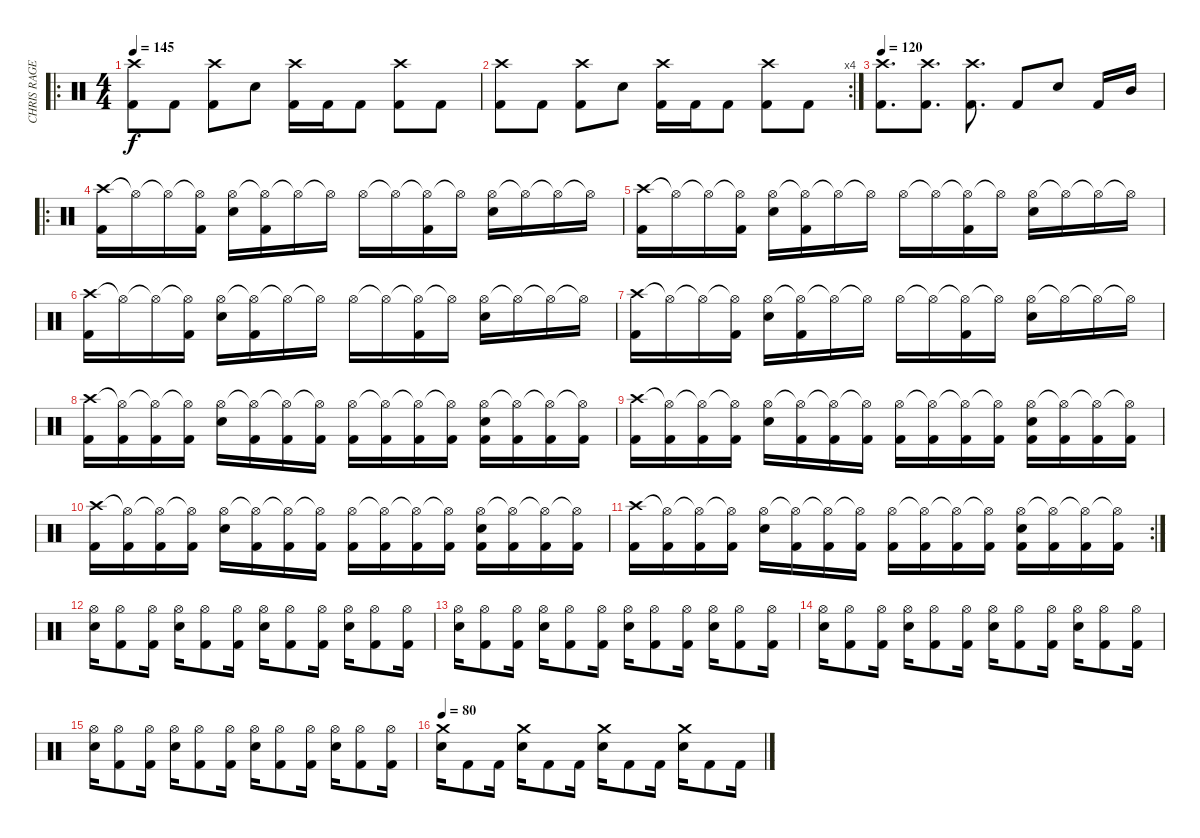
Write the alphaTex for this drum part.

\track ("CHRIS RAGE" "CHRIS RAGE") {instrument percussion}
\staff {score}
\articulation defaults
\ro
\ts (4 4)
\tempo 145
\clef neutral
\ks c
("Crash high (hit)" "Kick (hit) 2").8{dy f} "Kick (hit) 2".8 ("Crash high (hit)" "Kick (hit) 2").8 "Electric Snare (hit)".8 ("Crash high (hit)" "Kick (hit) 2").16 "Kick (hit) 2".16 "Kick (hit) 2".8 ("Crash high (hit)" "Kick (hit) 2").8 "Kick (hit) 2".8 |
\rc 4
("Crash high (hit)" "Kick (hit) 2").8 "Kick (hit) 2".8 ("Crash high (hit)" "Kick (hit) 2").8 "Electric Snare (hit)".8 ("Crash high (hit)" "Kick (hit) 2").16 "Kick (hit) 2".16 "Kick (hit) 2".8 ("Crash high (hit)" "Kick (hit) 2").8 "Kick (hit) 2".8 |
\tempo 120
("Crash high (hit)" "Kick (hit) 2").8{d} ("Crash high (hit)" "Kick (hit) 2").8{d} ("Crash high (hit)" "Kick (hit) 2").8{d} "Kick (hit) 2".8 "Electric Snare (hit)".8 "Kick (hit) 2".16 "Mid Tom (hit)".16 |
\ro
("Crash high (hit)" "Kick (hit) 2").16 "Hi-Hat (open)"{t}.16 "Hi-Hat (open)"{t}.16 ("Hi-Hat (open)"{t} "Kick (hit) 2").16 ("Hi-Hat (open)" "Electric Snare (hit)").16 ("Hi-Hat (open)"{t} "Kick (hit) 2").16 "Hi-Hat (open)"{t}.16 "Hi-Hat (open)"{t}.16 "Hi-Hat (open)".16 "Hi-Hat (open)"{t}.16 ("Hi-Hat (open)"{t} "Kick (hit) 2").16 "Hi-Hat (open)"{t}.16 ("Hi-Hat (open)" "Electric Snare (hit)").16 "Hi-Hat (open)"{t}.16 "Hi-Hat (open)"{t}.16 "Hi-Hat (open)"{t}.16 |
("Crash high (hit)" "Kick (hit) 2").16 "Hi-Hat (open)"{t}.16 "Hi-Hat (open)"{t}.16 ("Hi-Hat (open)"{t} "Kick (hit) 2").16 ("Hi-Hat (open)" "Electric Snare (hit)").16 ("Hi-Hat (open)"{t} "Kick (hit) 2").16 "Hi-Hat (open)"{t}.16 "Hi-Hat (open)"{t}.16 "Hi-Hat (open)".16 "Hi-Hat (open)"{t}.16 ("Hi-Hat (open)"{t} "Kick (hit) 2").16 "Hi-Hat (open)"{t}.16 ("Hi-Hat (open)" "Electric Snare (hit)").16 "Hi-Hat (open)"{t}.16 "Hi-Hat (open)"{t}.16 "Hi-Hat (open)"{t}.16 |
("Crash high (hit)" "Kick (hit) 2").16 "Hi-Hat (open)"{t}.16 "Hi-Hat (open)"{t}.16 ("Hi-Hat (open)"{t} "Kick (hit) 2").16 ("Hi-Hat (open)" "Electric Snare (hit)").16 ("Hi-Hat (open)"{t} "Kick (hit) 2").16 "Hi-Hat (open)"{t}.16 "Hi-Hat (open)"{t}.16 "Hi-Hat (open)".16 "Hi-Hat (open)"{t}.16 ("Hi-Hat (open)"{t} "Kick (hit) 2").16 "Hi-Hat (open)"{t}.16 ("Hi-Hat (open)" "Electric Snare (hit)").16 "Hi-Hat (open)"{t}.16 "Hi-Hat (open)"{t}.16 "Hi-Hat (open)"{t}.16 |
("Crash high (hit)" "Kick (hit) 2").16 "Hi-Hat (open)"{t}.16 "Hi-Hat (open)"{t}.16 ("Hi-Hat (open)"{t} "Kick (hit) 2").16 ("Hi-Hat (open)" "Electric Snare (hit)").16 ("Hi-Hat (open)"{t} "Kick (hit) 2").16 "Hi-Hat (open)"{t}.16 "Hi-Hat (open)"{t}.16 "Hi-Hat (open)".16 "Hi-Hat (open)"{t}.16 ("Hi-Hat (open)"{t} "Kick (hit) 2").16 "Hi-Hat (open)"{t}.16 ("Hi-Hat (open)" "Electric Snare (hit)").16 "Hi-Hat (open)"{t}.16 "Hi-Hat (open)"{t}.16 "Hi-Hat (open)"{t}.16 |
("Crash high (hit)" "Kick (hit) 2").16 ("Hi-Hat (open)"{t} "Kick (hit) 2").16 ("Hi-Hat (open)"{t} "Kick (hit) 2").16 ("Hi-Hat (open)"{t} "Kick (hit) 2").16 ("Hi-Hat (open)" "Electric Snare (hit)").16 ("Hi-Hat (open)"{t} "Kick (hit) 2").16 ("Hi-Hat (open)"{t} "Kick (hit) 2").16 ("Hi-Hat (open)"{t} "Kick (hit) 2").16 ("Hi-Hat (open)" "Kick (hit) 2").16 ("Hi-Hat (open)"{t} "Kick (hit) 2").16 ("Hi-Hat (open)"{t} "Kick (hit) 2").16 ("Hi-Hat (open)"{t} "Kick (hit) 2").16 ("Hi-Hat (open)" "Electric Snare (hit)" "Kick (hit) 2").16 ("Hi-Hat (open)"{t} "Kick (hit) 2").16 ("Hi-Hat (open)"{t} "Kick (hit) 2").16 ("Hi-Hat (open)"{t} "Kick (hit) 2").16 |
("Crash high (hit)" "Kick (hit) 2").16 ("Hi-Hat (open)"{t} "Kick (hit) 2").16 ("Hi-Hat (open)"{t} "Kick (hit) 2").16 ("Hi-Hat (open)"{t} "Kick (hit) 2").16 ("Hi-Hat (open)" "Electric Snare (hit)").16 ("Hi-Hat (open)"{t} "Kick (hit) 2").16 ("Hi-Hat (open)"{t} "Kick (hit) 2").16 ("Hi-Hat (open)"{t} "Kick (hit) 2").16 ("Hi-Hat (open)" "Kick (hit) 2").16 ("Hi-Hat (open)"{t} "Kick (hit) 2").16 ("Hi-Hat (open)"{t} "Kick (hit) 2").16 ("Hi-Hat (open)"{t} "Kick (hit) 2").16 ("Hi-Hat (open)" "Electric Snare (hit)" "Kick (hit) 2").16 ("Hi-Hat (open)"{t} "Kick (hit) 2").16 ("Hi-Hat (open)"{t} "Kick (hit) 2").16 ("Hi-Hat (open)"{t} "Kick (hit) 2").16 |
("Crash high (hit)" "Kick (hit) 2").16 ("Hi-Hat (open)"{t} "Kick (hit) 2").16 ("Hi-Hat (open)"{t} "Kick (hit) 2").16 ("Hi-Hat (open)"{t} "Kick (hit) 2").16 ("Hi-Hat (open)" "Electric Snare (hit)").16 ("Hi-Hat (open)"{t} "Kick (hit) 2").16 ("Hi-Hat (open)"{t} "Kick (hit) 2").16 ("Hi-Hat (open)"{t} "Kick (hit) 2").16 ("Hi-Hat (open)" "Kick (hit) 2").16 ("Hi-Hat (open)"{t} "Kick (hit) 2").16 ("Hi-Hat (open)"{t} "Kick (hit) 2").16 ("Hi-Hat (open)"{t} "Kick (hit) 2").16 ("Hi-Hat (open)" "Electric Snare (hit)" "Kick (hit) 2").16 ("Hi-Hat (open)"{t} "Kick (hit) 2").16 ("Hi-Hat (open)"{t} "Kick (hit) 2").16 ("Hi-Hat (open)"{t} "Kick (hit) 2").16 |
\rc 2
("Crash high (hit)" "Kick (hit) 2").16 ("Hi-Hat (open)"{t} "Kick (hit) 2").16 ("Hi-Hat (open)"{t} "Kick (hit) 2").16 ("Hi-Hat (open)"{t} "Kick (hit) 2").16 ("Hi-Hat (open)" "Electric Snare (hit)").16 ("Hi-Hat (open)"{t} "Kick (hit) 2").16 ("Hi-Hat (open)"{t} "Kick (hit) 2").16 ("Hi-Hat (open)"{t} "Kick (hit) 2").16 ("Hi-Hat (open)" "Kick (hit) 2").16 ("Hi-Hat (open)"{t} "Kick (hit) 2").16 ("Hi-Hat (open)"{t} "Kick (hit) 2").16 ("Hi-Hat (open)"{t} "Kick (hit) 2").16 ("Hi-Hat (open)" "Electric Snare (hit)" "Kick (hit) 2").16 ("Hi-Hat (open)"{t} "Kick (hit) 2").16 ("Hi-Hat (open)"{t} "Kick (hit) 2").16 ("Hi-Hat (open)"{t} "Kick (hit) 2").16 |
("Hi-Hat (open)" "Electric Snare (hit)").16 ("Hi-Hat (open)" "Kick (hit) 2").8 ("Hi-Hat (open)" "Kick (hit) 2").16 ("Hi-Hat (open)" "Electric Snare (hit)").16 ("Hi-Hat (open)" "Kick (hit) 2").8 ("Hi-Hat (open)" "Kick (hit) 2").16 ("Hi-Hat (open)" "Electric Snare (hit)").16 ("Hi-Hat (open)" "Kick (hit) 2").8 ("Hi-Hat (open)" "Kick (hit) 2").16 ("Hi-Hat (open)" "Electric Snare (hit)").16 ("Hi-Hat (open)" "Kick (hit) 2").8 ("Hi-Hat (open)" "Kick (hit) 2").16 |
("Hi-Hat (open)" "Electric Snare (hit)").16 ("Hi-Hat (open)" "Kick (hit) 2").8 ("Hi-Hat (open)" "Kick (hit) 2").16 ("Hi-Hat (open)" "Electric Snare (hit)").16 ("Hi-Hat (open)" "Kick (hit) 2").8 ("Hi-Hat (open)" "Kick (hit) 2").16 ("Hi-Hat (open)" "Electric Snare (hit)").16 ("Hi-Hat (open)" "Kick (hit) 2").8 ("Hi-Hat (open)" "Kick (hit) 2").16 ("Hi-Hat (open)" "Electric Snare (hit)").16 ("Hi-Hat (open)" "Kick (hit) 2").8 ("Hi-Hat (open)" "Kick (hit) 2").16 |
("Hi-Hat (open)" "Electric Snare (hit)").16 ("Hi-Hat (open)" "Kick (hit) 2").8 ("Hi-Hat (open)" "Kick (hit) 2").16 ("Hi-Hat (open)" "Electric Snare (hit)").16 ("Hi-Hat (open)" "Kick (hit) 2").8 ("Hi-Hat (open)" "Kick (hit) 2").16 ("Hi-Hat (open)" "Electric Snare (hit)").16 ("Hi-Hat (open)" "Kick (hit) 2").8 ("Hi-Hat (open)" "Kick (hit) 2").16 ("Hi-Hat (open)" "Electric Snare (hit)").16 ("Hi-Hat (open)" "Kick (hit) 2").8 ("Hi-Hat (open)" "Kick (hit) 2").16 |
("Hi-Hat (open)" "Electric Snare (hit)").16 ("Hi-Hat (open)" "Kick (hit) 2").8 ("Hi-Hat (open)" "Kick (hit) 2").16 ("Hi-Hat (open)" "Electric Snare (hit)").16 ("Hi-Hat (open)" "Kick (hit) 2").8 ("Hi-Hat (open)" "Kick (hit) 2").16 ("Hi-Hat (open)" "Electric Snare (hit)").16 ("Hi-Hat (open)" "Kick (hit) 2").8 ("Hi-Hat (open)" "Kick (hit) 2").16 ("Hi-Hat (open)" "Electric Snare (hit)").16 ("Hi-Hat (open)" "Kick (hit) 2").8 ("Hi-Hat (open)" "Kick (hit) 2").16 |
\tempo 80
("Crash medium (hit)" "Electric Snare (hit)").16 "Kick (hit) 2".8 "Kick (hit) 2".16 ("Crash medium (hit)" "Electric Snare (hit)").16 "Kick (hit) 2".8 "Kick (hit) 2".16 ("Crash medium (hit)" "Electric Snare (hit)").16 "Kick (hit) 2".8 "Kick (hit) 2".16 ("Crash medium (hit)" "Electric Snare (hit)").16 "Kick (hit) 2".8 "Kick (hit) 2".16
